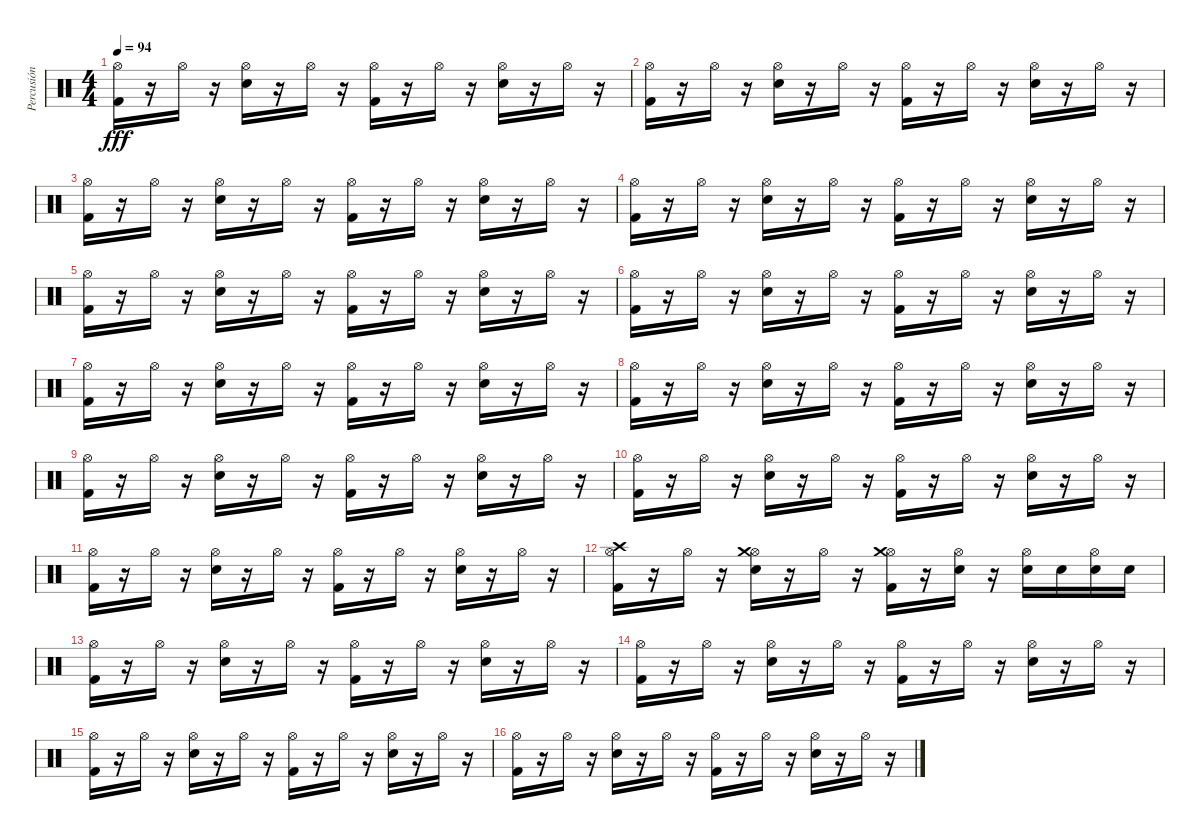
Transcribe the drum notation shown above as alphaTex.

\track ("Percusión" "Percusión") {instrument percussion}
\staff {score}
\articulation defaults
\ts (4 4)
\tempo 94
\clef neutral
\ks c
("Hi-Hat (open)" "Kick (hit) 2").16{dy fff} r.16 "Hi-Hat (open)".16 r.16 ("Hi-Hat (open)" "Snare (hit) 2").16 r.16 "Hi-Hat (open)".16 r.16 ("Hi-Hat (open)" "Kick (hit) 2").16 r.16 "Hi-Hat (open)".16 r.16 ("Hi-Hat (open)" "Snare (hit) 2").16 r.16 "Hi-Hat (open)".16 r.16 |
("Hi-Hat (open)" "Kick (hit) 2").16 r.16 "Hi-Hat (open)".16 r.16 ("Hi-Hat (open)" "Snare (hit) 2").16 r.16 "Hi-Hat (open)".16 r.16 ("Hi-Hat (open)" "Kick (hit) 2").16 r.16 "Hi-Hat (open)".16 r.16 ("Hi-Hat (open)" "Snare (hit) 2").16 r.16 "Hi-Hat (open)".16 r.16 |
("Hi-Hat (open)" "Kick (hit) 2").16 r.16 "Hi-Hat (open)".16 r.16 ("Hi-Hat (open)" "Snare (hit) 2").16 r.16 "Hi-Hat (open)".16 r.16 ("Hi-Hat (open)" "Kick (hit) 2").16 r.16 "Hi-Hat (open)".16 r.16 ("Hi-Hat (open)" "Snare (hit) 2").16 r.16 "Hi-Hat (open)".16 r.16 |
("Hi-Hat (open)" "Kick (hit) 2").16 r.16 "Hi-Hat (open)".16 r.16 ("Hi-Hat (open)" "Snare (hit) 2").16 r.16 "Hi-Hat (open)".16 r.16 ("Hi-Hat (open)" "Kick (hit) 2").16 r.16 "Hi-Hat (open)".16 r.16 ("Hi-Hat (open)" "Snare (hit) 2").16 r.16 "Hi-Hat (open)".16 r.16 |
("Hi-Hat (open)" "Kick (hit) 2").16 r.16 "Hi-Hat (open)".16 r.16 ("Hi-Hat (open)" "Snare (hit) 2").16 r.16 "Hi-Hat (open)".16 r.16 ("Hi-Hat (open)" "Kick (hit) 2").16 r.16 "Hi-Hat (open)".16 r.16 ("Hi-Hat (open)" "Snare (hit) 2").16 r.16 "Hi-Hat (open)".16 r.16 |
("Hi-Hat (open)" "Kick (hit) 2").16 r.16 "Hi-Hat (open)".16 r.16 ("Hi-Hat (open)" "Snare (hit) 2").16 r.16 "Hi-Hat (open)".16 r.16 ("Hi-Hat (open)" "Kick (hit) 2").16 r.16 "Hi-Hat (open)".16 r.16 ("Hi-Hat (open)" "Snare (hit) 2").16 r.16 "Hi-Hat (open)".16 r.16 |
("Hi-Hat (open)" "Kick (hit) 2").16 r.16 "Hi-Hat (open)".16 r.16 ("Hi-Hat (open)" "Snare (hit) 2").16 r.16 "Hi-Hat (open)".16 r.16 ("Hi-Hat (open)" "Kick (hit) 2").16 r.16 "Hi-Hat (open)".16 r.16 ("Hi-Hat (open)" "Snare (hit) 2").16 r.16 "Hi-Hat (open)".16 r.16 |
("Hi-Hat (open)" "Kick (hit) 2").16 r.16 "Hi-Hat (open)".16 r.16 ("Hi-Hat (open)" "Snare (hit) 2").16 r.16 "Hi-Hat (open)".16 r.16 ("Hi-Hat (open)" "Kick (hit) 2").16 r.16 "Hi-Hat (open)".16 r.16 ("Hi-Hat (open)" "Snare (hit) 2").16 r.16 "Hi-Hat (open)".16 r.16 |
("Hi-Hat (open)" "Kick (hit) 2").16 r.16 "Hi-Hat (open)".16 r.16 ("Hi-Hat (open)" "Snare (hit) 2").16 r.16 "Hi-Hat (open)".16 r.16 ("Hi-Hat (open)" "Kick (hit) 2").16 r.16 "Hi-Hat (open)".16 r.16 ("Hi-Hat (open)" "Snare (hit) 2").16 r.16 "Hi-Hat (open)".16 r.16 |
("Hi-Hat (open)" "Kick (hit) 2").16 r.16 "Hi-Hat (open)".16 r.16 ("Hi-Hat (open)" "Snare (hit) 2").16 r.16 "Hi-Hat (open)".16 r.16 ("Hi-Hat (open)" "Kick (hit) 2").16 r.16 "Hi-Hat (open)".16 r.16 ("Hi-Hat (open)" "Snare (hit) 2").16 r.16 "Hi-Hat (open)".16 r.16 |
("Hi-Hat (open)" "Kick (hit) 2").16 r.16 "Hi-Hat (open)".16 r.16 ("Hi-Hat (open)" "Snare (hit) 2").16 r.16 "Hi-Hat (open)".16 r.16 ("Hi-Hat (open)" "Kick (hit) 2").16 r.16 "Hi-Hat (open)".16 r.16 ("Hi-Hat (open)" "Snare (hit) 2").16 r.16 "Hi-Hat (open)".16 r.16 |
("Hi-Hat (open)" "Kick (hit) 2" "Crash high (hit)").16 r.16 "Hi-Hat (open)".16 r.16 ("Hi-Hat (open)" "Snare (hit) 2" "Crash medium (hit)").16 r.16 "Hi-Hat (open)".16 r.16 ("Hi-Hat (open)" "Kick (hit) 2" "Crash medium (hit)").16 r.16 ("Hi-Hat (open)" "Snare (hit) 2").16 r.16 ("Hi-Hat (open)" "Snare (hit) 2").16 "Snare (hit) 2".16 ("Hi-Hat (open)" "Snare (hit) 2").16 "Snare (hit) 2".16 |
("Hi-Hat (open)" "Kick (hit) 2").16 r.16 "Hi-Hat (open)".16 r.16 ("Hi-Hat (open)" "Snare (hit) 2").16 r.16 "Hi-Hat (open)".16 r.16 ("Hi-Hat (open)" "Kick (hit) 2").16 r.16 "Hi-Hat (open)".16 r.16 ("Hi-Hat (open)" "Snare (hit) 2").16 r.16 "Hi-Hat (open)".16 r.16 |
("Hi-Hat (open)" "Kick (hit) 2").16 r.16 "Hi-Hat (open)".16 r.16 ("Hi-Hat (open)" "Snare (hit) 2").16 r.16 "Hi-Hat (open)".16 r.16 ("Hi-Hat (open)" "Kick (hit) 2").16 r.16 "Hi-Hat (open)".16 r.16 ("Hi-Hat (open)" "Snare (hit) 2").16 r.16 "Hi-Hat (open)".16 r.16 |
("Hi-Hat (open)" "Kick (hit) 2").16 r.16 "Hi-Hat (open)".16 r.16 ("Hi-Hat (open)" "Snare (hit) 2").16 r.16 "Hi-Hat (open)".16 r.16 ("Hi-Hat (open)" "Kick (hit) 2").16 r.16 "Hi-Hat (open)".16 r.16 ("Hi-Hat (open)" "Snare (hit) 2").16 r.16 "Hi-Hat (open)".16 r.16 |
("Hi-Hat (open)" "Kick (hit) 2").16 r.16 "Hi-Hat (open)".16 r.16 ("Hi-Hat (open)" "Snare (hit) 2").16 r.16 "Hi-Hat (open)".16 r.16 ("Hi-Hat (open)" "Kick (hit) 2").16 r.16 "Hi-Hat (open)".16 r.16 ("Hi-Hat (open)" "Snare (hit) 2").16 r.16 "Hi-Hat (open)".16 r.16
